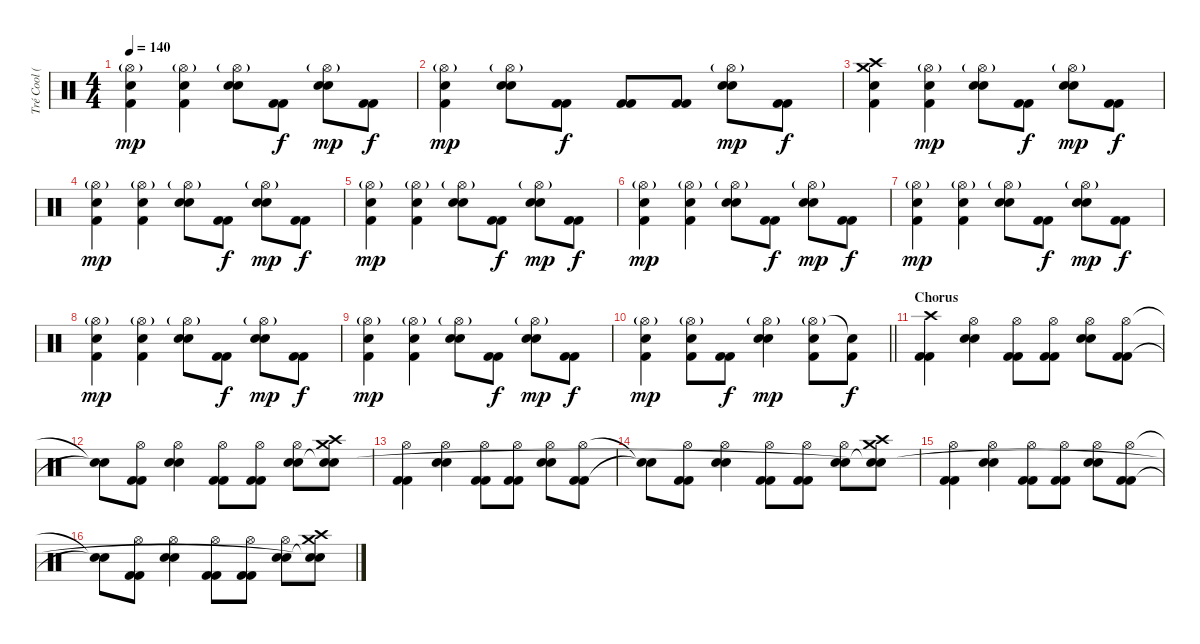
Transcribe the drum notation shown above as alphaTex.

\track ("Tré Cool (Drums)" "Tré Cool (") {instrument percussion}
\staff {score}
\articulation defaults
\ts (4 4)
\tempo 140
\clef neutral
\ks c
("Hi-Hat (open)"{g} "Electric Snare (hit)" "Kick (hit) 2").4{dy mp} ("Hi-Hat (open)"{g} "Electric Snare (hit)" "Kick (hit) 2").4 ("Hi-Hat (open)"{g} "Electric Snare (hit)" "Electric Snare (hit)").8 ("Kick (hit) 2" "Kick (hit) 2").8{dy f} ("Hi-Hat (open)"{g} "Electric Snare (hit)" "Electric Snare (hit)").8{dy mp} ("Kick (hit) 2" "Kick (hit) 2").8{dy f} |
("Hi-Hat (open)"{g} "Electric Snare (hit)" "Kick (hit) 2").4{dy mp} ("Hi-Hat (open)"{g} "Electric Snare (hit)" "Electric Snare (hit)").8 ("Kick (hit) 2" "Kick (hit) 2").8{dy f} ("Kick (hit) 2" "Kick (hit) 2").8 ("Kick (hit) 2" "Kick (hit) 2").8 ("Hi-Hat (open)"{g} "Electric Snare (hit)" "Electric Snare (hit)").8{dy mp} ("Kick (hit) 2" "Kick (hit) 2").8{dy f} |
("Crash high (hit)" "Crash medium (hit)" "Electric Snare (hit)" "Kick (hit) 2").4 ("Hi-Hat (open)"{g} "Electric Snare (hit)" "Kick (hit) 2").4{dy mp} ("Hi-Hat (open)"{g} "Electric Snare (hit)" "Electric Snare (hit)").8 ("Kick (hit) 2" "Kick (hit) 2").8{dy f} ("Hi-Hat (open)"{g} "Electric Snare (hit)" "Electric Snare (hit)").8{dy mp} ("Kick (hit) 2" "Kick (hit) 2").8{dy f} |
("Hi-Hat (open)"{g} "Electric Snare (hit)" "Kick (hit) 2").4{dy mp} ("Hi-Hat (open)"{g} "Electric Snare (hit)" "Kick (hit) 2").4 ("Hi-Hat (open)"{g} "Electric Snare (hit)" "Electric Snare (hit)").8 ("Kick (hit) 2" "Kick (hit) 2").8{dy f} ("Hi-Hat (open)"{g} "Electric Snare (hit)" "Electric Snare (hit)").8{dy mp} ("Kick (hit) 2" "Kick (hit) 2").8{dy f} |
("Hi-Hat (open)"{g} "Electric Snare (hit)" "Kick (hit) 2").4{dy mp} ("Hi-Hat (open)"{g} "Electric Snare (hit)" "Kick (hit) 2").4 ("Hi-Hat (open)"{g} "Electric Snare (hit)" "Electric Snare (hit)").8 ("Kick (hit) 2" "Kick (hit) 2").8{dy f} ("Hi-Hat (open)"{g} "Electric Snare (hit)" "Electric Snare (hit)").8{dy mp} ("Kick (hit) 2" "Kick (hit) 2").8{dy f} |
("Hi-Hat (open)"{g} "Electric Snare (hit)" "Kick (hit) 2").4{dy mp} ("Hi-Hat (open)"{g} "Electric Snare (hit)" "Kick (hit) 2").4 ("Hi-Hat (open)"{g} "Electric Snare (hit)" "Electric Snare (hit)").8 ("Kick (hit) 2" "Kick (hit) 2").8{dy f} ("Hi-Hat (open)"{g} "Electric Snare (hit)" "Electric Snare (hit)").8{dy mp} ("Kick (hit) 2" "Kick (hit) 2").8{dy f} |
("Hi-Hat (open)"{g} "Electric Snare (hit)" "Kick (hit) 2").4{dy mp} ("Hi-Hat (open)"{g} "Electric Snare (hit)" "Kick (hit) 2").4 ("Hi-Hat (open)"{g} "Electric Snare (hit)" "Electric Snare (hit)").8 ("Kick (hit) 2" "Kick (hit) 2").8{dy f} ("Hi-Hat (open)"{g} "Electric Snare (hit)" "Electric Snare (hit)").8{dy mp} ("Kick (hit) 2" "Kick (hit) 2").8{dy f} |
("Hi-Hat (open)"{g} "Electric Snare (hit)" "Kick (hit) 2").4{dy mp} ("Hi-Hat (open)"{g} "Electric Snare (hit)" "Kick (hit) 2").4 ("Hi-Hat (open)"{g} "Electric Snare (hit)" "Electric Snare (hit)").8 ("Kick (hit) 2" "Kick (hit) 2").8{dy f} ("Hi-Hat (open)"{g} "Electric Snare (hit)" "Electric Snare (hit)").8{dy mp} ("Kick (hit) 2" "Kick (hit) 2").8{dy f} |
("Hi-Hat (open)"{g} "Electric Snare (hit)" "Kick (hit) 2").4{dy mp} ("Hi-Hat (open)"{g} "Electric Snare (hit)" "Kick (hit) 2").4 ("Hi-Hat (open)"{g} "Electric Snare (hit)" "Electric Snare (hit)").8 ("Kick (hit) 2" "Kick (hit) 2").8{dy f} ("Hi-Hat (open)"{g} "Electric Snare (hit)" "Electric Snare (hit)").8{dy mp} ("Kick (hit) 2" "Kick (hit) 2").8{dy f} |
\barLineRight lightlight
("Hi-Hat (open)"{g} "Electric Snare (hit)" "Kick (hit) 2").4{dy mp} ("Hi-Hat (open)"{g} "Electric Snare (hit)" "Kick (hit) 2").8 ("Kick (hit) 2" "Kick (hit) 2").8{dy f} ("Hi-Hat (open)"{g} "Electric Snare (hit)" "Electric Snare (hit)").4{dy mp} ("Hi-Hat (open)"{g} "Electric Snare (hit)"{tr (38 64)} "Kick (hit) 2").8 ("Electric Snare (hit)"{t} "Kick (hit) 2").8{dy f} |
\section ("" "Chorus")
("Crash high (hit)" "Kick (hit) 2" "Kick (hit) 2").4 ("Hi-Hat (open)" "Electric Snare (hit)" "Electric Snare (hit)").4 ("Hi-Hat (open)" "Kick (hit) 2" "Kick (hit) 2").8 ("Hi-Hat (open)" "Kick (hit) 2" "Kick (hit) 2").8 ("Hi-Hat (open)" "Electric Snare (hit)" "Electric Snare (hit)").8 ("Hi-Hat (open)" "Kick (hit) 2" "Kick (hit) 2").8 |
("Snare (hit)"{t} "Snare (hit)"{t}).8 ("Hi-Hat (open)" "Kick (hit) 2" "Kick (hit) 2").8 ("Hi-Hat (open)" "Electric Snare (hit)" "Electric Snare (hit)").4 ("Hi-Hat (open)" "Kick (hit) 2" "Kick (hit) 2").8 ("Hi-Hat (open)" "Kick (hit) 2" "Kick (hit) 2").8 ("Hi-Hat (open)" "Electric Snare (hit)" "Electric Snare (hit)").8 ("Crash high (hit)" "Crash medium (hit)" "Snare (hit)"{t} "Snare (hit)").8 |
("Hi-Hat (open)" "Kick (hit) 2" "Kick (hit) 2").4 ("Hi-Hat (open)" "Electric Snare (hit)" "Electric Snare (hit)").4 ("Hi-Hat (open)" "Kick (hit) 2" "Kick (hit) 2").8 ("Hi-Hat (open)" "Kick (hit) 2" "Kick (hit) 2").8 ("Hi-Hat (open)" "Electric Snare (hit)" "Electric Snare (hit)").8 ("Hi-Hat (open)" "Kick (hit) 2" "Kick (hit) 2").8 |
("Snare (hit)"{t} "Snare (hit)"{t}).8 ("Hi-Hat (open)" "Kick (hit) 2" "Kick (hit) 2").8 ("Hi-Hat (open)" "Electric Snare (hit)" "Electric Snare (hit)").4 ("Hi-Hat (open)" "Kick (hit) 2" "Kick (hit) 2").8 ("Hi-Hat (open)" "Kick (hit) 2" "Kick (hit) 2").8 ("Hi-Hat (open)" "Electric Snare (hit)" "Electric Snare (hit)").8 ("Crash high (hit)" "Crash medium (hit)" "Snare (hit)"{t} "Snare (hit)"{t}).8 |
("Hi-Hat (open)" "Kick (hit) 2" "Kick (hit) 2").4 ("Hi-Hat (open)" "Electric Snare (hit)" "Electric Snare (hit)").4 ("Hi-Hat (open)" "Kick (hit) 2" "Kick (hit) 2").8 ("Hi-Hat (open)" "Kick (hit) 2" "Kick (hit) 2").8 ("Hi-Hat (open)" "Electric Snare (hit)" "Electric Snare (hit)").8 ("Hi-Hat (open)" "Kick (hit) 2" "Kick (hit) 2").8 |
("Snare (hit)"{t} "Snare (hit)"{t}).8 ("Hi-Hat (open)" "Kick (hit) 2" "Kick (hit) 2").8 ("Hi-Hat (open)" "Electric Snare (hit)" "Electric Snare (hit)").4 ("Hi-Hat (open)" "Kick (hit) 2" "Kick (hit) 2").8 ("Hi-Hat (open)" "Kick (hit) 2" "Kick (hit) 2").8 ("Hi-Hat (open)" "Electric Snare (hit)" "Electric Snare (hit)").8 ("Crash high (hit)" "Crash medium (hit)" "Snare (hit)"{t} "Snare (hit)"{t}).8
